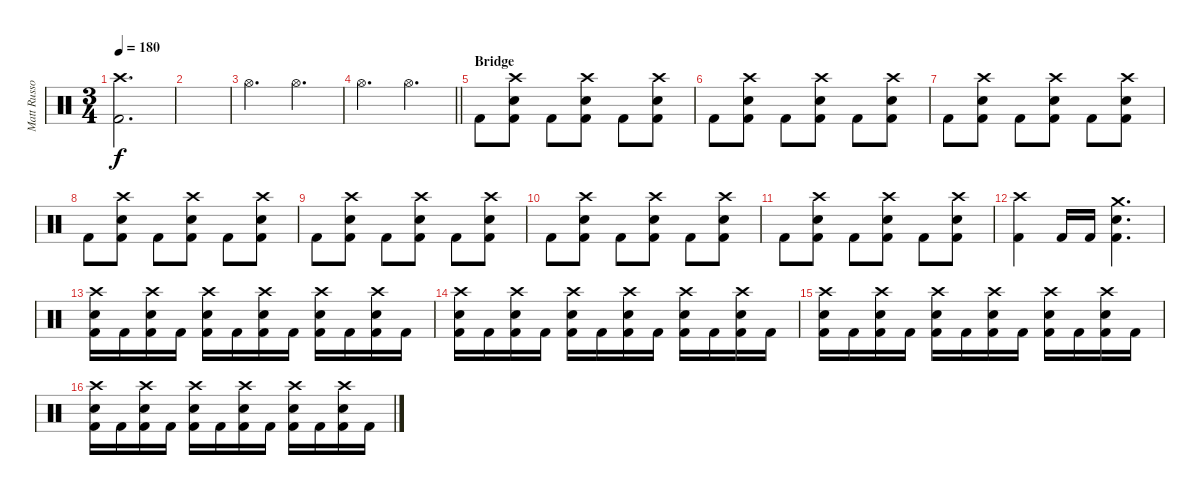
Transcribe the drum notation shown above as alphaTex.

\track ("Matt Russo" "Matt Russo") {instrument percussion}
\staff {score}
\articulation defaults
\ts (3 4)
\tempo 180
\clef neutral
\ks c
("Crash high (hit)" "Kick (hit) 2").2{d dy f} |
|
"Hi-Hat (open)".4{d} "Hi-Hat (open)".4{d} |
\barLineRight lightlight "Hi-Hat (open)".4{d} "Hi-Hat (open)".4{d}
|
\section ("" "Bridge")
"Kick (hit) 2".8 ("Crash high (hit)" "Electric Snare (hit)" "Kick (hit) 2").8 "Kick (hit) 2".8 ("Crash high (hit)" "Electric Snare (hit)" "Kick (hit) 2").8 "Kick (hit) 2".8 ("Crash high (hit)" "Electric Snare (hit)" "Kick (hit) 2").8 |
"Kick (hit) 2".8 ("Crash high (hit)" "Electric Snare (hit)" "Kick (hit) 2").8 "Kick (hit) 2".8 ("Crash high (hit)" "Electric Snare (hit)" "Kick (hit) 2").8 "Kick (hit) 2".8 ("Crash high (hit)" "Electric Snare (hit)" "Kick (hit) 2").8 |
"Kick (hit) 2".8 ("Crash high (hit)" "Electric Snare (hit)" "Kick (hit) 2").8 "Kick (hit) 2".8 ("Crash high (hit)" "Electric Snare (hit)" "Kick (hit) 2").8 "Kick (hit) 2".8 ("Crash high (hit)" "Electric Snare (hit)" "Kick (hit) 2").8 |
"Kick (hit) 2".8 ("Crash high (hit)" "Electric Snare (hit)" "Kick (hit) 2").8 "Kick (hit) 2".8 ("Crash high (hit)" "Electric Snare (hit)" "Kick (hit) 2").8 "Kick (hit) 2".8 ("Crash high (hit)" "Electric Snare (hit)" "Kick (hit) 2").8 |
"Kick (hit) 2".8 ("Crash high (hit)" "Electric Snare (hit)" "Kick (hit) 2").8 "Kick (hit) 2".8 ("Crash high (hit)" "Electric Snare (hit)" "Kick (hit) 2").8 "Kick (hit) 2".8 ("Crash high (hit)" "Electric Snare (hit)" "Kick (hit) 2").8 |
"Kick (hit) 2".8 ("Crash high (hit)" "Electric Snare (hit)" "Kick (hit) 2").8 "Kick (hit) 2".8 ("Crash high (hit)" "Electric Snare (hit)" "Kick (hit) 2").8 "Kick (hit) 2".8 ("Crash high (hit)" "Electric Snare (hit)" "Kick (hit) 2").8 |
"Kick (hit) 2".8 ("Crash high (hit)" "Electric Snare (hit)" "Kick (hit) 2").8 "Kick (hit) 2".8 ("Crash high (hit)" "Electric Snare (hit)" "Kick (hit) 2").8 "Kick (hit) 2".8 ("Crash high (hit)" "Electric Snare (hit)" "Kick (hit) 2").8 |
("Crash high (hit)" "Kick (hit) 2").4 "Kick (hit) 2".16 "Kick (hit) 2".16 ("Crash medium (hit)" "Electric Snare (hit)" "Kick (hit) 2").4{d} |
("Crash high (hit)" "Electric Snare (hit)" "Kick (hit) 2").16 "Kick (hit) 2".16 ("Crash high (hit)" "Electric Snare (hit)" "Kick (hit) 2").16 "Kick (hit) 2".16 ("Crash high (hit)" "Electric Snare (hit)" "Kick (hit) 2").16 "Kick (hit) 2".16 ("Crash high (hit)" "Electric Snare (hit)" "Kick (hit) 2").16 "Kick (hit) 2".16 ("Crash high (hit)" "Electric Snare (hit)" "Kick (hit) 2").16 "Kick (hit) 2".16 ("Crash high (hit)" "Electric Snare (hit)" "Kick (hit) 2").16 "Kick (hit) 2".16 |
("Crash high (hit)" "Electric Snare (hit)" "Kick (hit) 2").16 "Kick (hit) 2".16 ("Crash high (hit)" "Electric Snare (hit)" "Kick (hit) 2").16 "Kick (hit) 2".16 ("Crash high (hit)" "Electric Snare (hit)" "Kick (hit) 2").16 "Kick (hit) 2".16 ("Crash high (hit)" "Electric Snare (hit)" "Kick (hit) 2").16 "Kick (hit) 2".16 ("Crash high (hit)" "Electric Snare (hit)" "Kick (hit) 2").16 "Kick (hit) 2".16 ("Crash high (hit)" "Electric Snare (hit)" "Kick (hit) 2").16 "Kick (hit) 2".16 |
("Crash high (hit)" "Electric Snare (hit)" "Kick (hit) 2").16 "Kick (hit) 2".16 ("Crash high (hit)" "Electric Snare (hit)" "Kick (hit) 2").16 "Kick (hit) 2".16 ("Crash high (hit)" "Electric Snare (hit)" "Kick (hit) 2").16 "Kick (hit) 2".16 ("Crash high (hit)" "Electric Snare (hit)" "Kick (hit) 2").16 "Kick (hit) 2".16 ("Crash high (hit)" "Electric Snare (hit)" "Kick (hit) 2").16 "Kick (hit) 2".16 ("Crash high (hit)" "Electric Snare (hit)" "Kick (hit) 2").16 "Kick (hit) 2".16 |
("Crash high (hit)" "Electric Snare (hit)" "Kick (hit) 2").16 "Kick (hit) 2".16 ("Crash high (hit)" "Electric Snare (hit)" "Kick (hit) 2").16 "Kick (hit) 2".16 ("Crash high (hit)" "Electric Snare (hit)" "Kick (hit) 2").16 "Kick (hit) 2".16 ("Crash high (hit)" "Electric Snare (hit)" "Kick (hit) 2").16 "Kick (hit) 2".16 ("Crash high (hit)" "Electric Snare (hit)" "Kick (hit) 2").16 "Kick (hit) 2".16 ("Crash high (hit)" "Electric Snare (hit)" "Kick (hit) 2").16 "Kick (hit) 2".16
